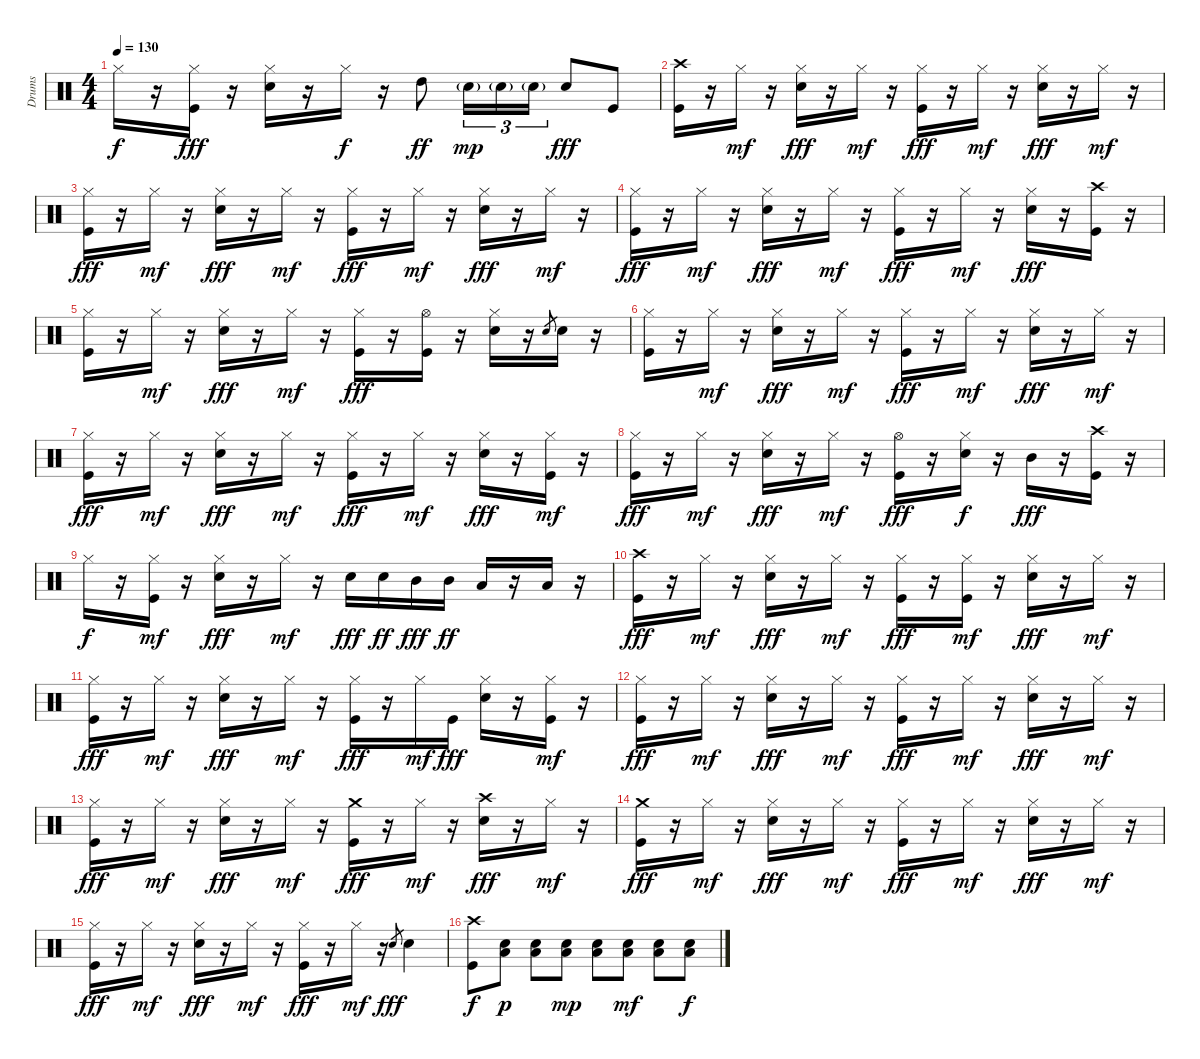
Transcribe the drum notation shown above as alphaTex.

\track ("Drums" "Drums") {instrument percussion}
\staff {score}
\articulation defaults
\ts (4 4)
\tempo 130
\clef neutral
\ks c "Hi-Hat (closed)".16{dy f}
r.16 ("Kick (hit)" "Hi-Hat (closed)").16{dy fff} r.16 ("Electric Snare (hit)" "Hi-Hat (closed)").16 r.16 "Hi-Hat (closed)".16{dy f} r.16 "High Tom (hit)".8{dy ff} "Electric Snare (hit)"{g}.16{tu (3 2) dy mp} "Electric Snare (hit)"{g}.16{tu (3 2)} "Electric Snare (hit)"{g}.16{tu (3 2)} "Electric Snare (hit)".8{dy fff} "Kick (hit)".8 |
("Kick (hit)" "Crash high (hit)").16 r.16 "Hi-Hat (closed)".16{dy mf} r.16 ("Electric Snare (hit)" "Hi-Hat (closed)").16{dy fff} r.16 "Hi-Hat (closed)".16{dy mf} r.16 ("Kick (hit)" "Hi-Hat (closed)").16{dy fff} r.16 "Hi-Hat (closed)".16{dy mf} r.16 ("Electric Snare (hit)" "Hi-Hat (closed)").16{dy fff} r.16 "Hi-Hat (closed)".16{dy mf} r.16 |
("Kick (hit)" "Hi-Hat (closed)").16{dy fff} r.16 "Hi-Hat (closed)".16{dy mf} r.16 ("Electric Snare (hit)" "Hi-Hat (closed)").16{dy fff} r.16 "Hi-Hat (closed)".16{dy mf} r.16 ("Kick (hit)" "Hi-Hat (closed)").16{dy fff} r.16 "Hi-Hat (closed)".16{dy mf} r.16 ("Electric Snare (hit)" "Hi-Hat (closed)").16{dy fff} r.16 "Hi-Hat (closed)".16{dy mf} r.16 |
("Kick (hit)" "Hi-Hat (closed)").16{dy fff} r.16 "Hi-Hat (closed)".16{dy mf} r.16 ("Electric Snare (hit)" "Hi-Hat (closed)").16{dy fff} r.16 "Hi-Hat (closed)".16{dy mf} r.16 ("Kick (hit)" "Hi-Hat (closed)").16{dy fff} r.16 "Hi-Hat (closed)".16{dy mf} r.16 ("Electric Snare (hit)" "Hi-Hat (closed)").16{dy fff} r.16 ("Kick (hit)" "Crash high (hit)").16 r.16 |
("Kick (hit)" "Hi-Hat (closed)").16 r.16 "Hi-Hat (closed)".16{dy mf} r.16 ("Electric Snare (hit)" "Hi-Hat (closed)").16{dy fff} r.16 "Hi-Hat (closed)".16{dy mf} r.16 ("Kick (hit)" "Hi-Hat (closed)").16{dy fff} r.16 ("Kick (hit)" "Hi-Hat (open)").16 r.16 ("Electric Snare (hit)" "Hi-Hat (closed)").16 r.16 "Electric Snare (hit)".8{gr} "Electric Snare (hit)".16 r.16 |
("Kick (hit)" "Hi-Hat (closed)").16 r.16 "Hi-Hat (closed)".16{dy mf} r.16 ("Electric Snare (hit)" "Hi-Hat (closed)").16{dy fff} r.16 "Hi-Hat (closed)".16{dy mf} r.16 ("Kick (hit)" "Hi-Hat (closed)").16{dy fff} r.16 "Hi-Hat (closed)".16{dy mf} r.16 ("Electric Snare (hit)" "Hi-Hat (closed)").16{dy fff} r.16 "Hi-Hat (closed)".16{dy mf} r.16 |
("Kick (hit)" "Hi-Hat (closed)").16{dy fff} r.16 "Hi-Hat (closed)".16{dy mf} r.16 ("Electric Snare (hit)" "Hi-Hat (closed)").16{dy fff} r.16 "Hi-Hat (closed)".16{dy mf} r.16 ("Kick (hit)" "Hi-Hat (closed)").16{dy fff} r.16 "Hi-Hat (closed)".16{dy mf} r.16 ("Electric Snare (hit)" "Hi-Hat (closed)").16{dy fff} r.16 ("Kick (hit)" "Hi-Hat (closed)").16{dy mf} r.16 |
("Kick (hit)" "Hi-Hat (closed)").16{dy fff} r.16 "Hi-Hat (closed)".16{dy mf} r.16 ("Electric Snare (hit)" "Hi-Hat (closed)").16{dy fff} r.16 "Hi-Hat (closed)".16{dy mf} r.16 ("Kick (hit)" "Hi-Hat (open)").16{dy fff} r.16 ("Electric Snare (hit)" "Hi-Hat (closed)").16{dy f} r.16 "Mid Tom (hit)".16{dy fff} r.16 ("Kick (hit)" "Crash high (hit)").16 r.16 |
"Hi-Hat (closed)".16{dy f} r.16 ("Kick (hit)" "Hi-Hat (closed)").16{dy mf} r.16 ("Electric Snare (hit)" "Hi-Hat (closed)").16{dy fff} r.16 "Hi-Hat (closed)".16{dy mf} r.16 "Electric Snare (hit)".16{dy fff} "Electric Snare (hit)".16{dy ff} "Mid Tom (hit)".16{dy fff} "Mid Tom (hit)".16{dy ff} "Low Tom (hit)".16 r.16 "Low Floor Tom (hit)".16 r.16 |
("Kick (hit)" "Crash high (hit)").16{dy fff} r.16 "Hi-Hat (closed)".16{dy mf} r.16 ("Electric Snare (hit)" "Hi-Hat (closed)").16{dy fff} r.16 "Hi-Hat (closed)".16{dy mf} r.16 ("Kick (hit)" "Hi-Hat (closed)").16{dy fff} r.16 ("Kick (hit)" "Hi-Hat (closed)").16{dy mf} r.16 ("Electric Snare (hit)" "Hi-Hat (closed)").16{dy fff} r.16 "Hi-Hat (closed)".16{dy mf} r.16 |
("Kick (hit)" "Hi-Hat (closed)").16{dy fff} r.16 "Hi-Hat (closed)".16{dy mf} r.16 ("Electric Snare (hit)" "Hi-Hat (closed)").16{dy fff} r.16 "Hi-Hat (closed)".16{dy mf} r.16 ("Kick (hit)" "Hi-Hat (closed)").16{dy fff} r.16 "Hi-Hat (closed)".16{dy mf} "Kick (hit)".16{dy fff} ("Electric Snare (hit)" "Hi-Hat (closed)").16 r.16 ("Kick (hit)" "Hi-Hat (closed)").16{dy mf} r.16 |
("Kick (hit)" "Hi-Hat (closed)").16{dy fff} r.16 "Hi-Hat (closed)".16{dy mf} r.16 ("Electric Snare (hit)" "Hi-Hat (closed)").16{dy fff} r.16 "Hi-Hat (closed)".16{dy mf} r.16 ("Kick (hit)" "Hi-Hat (closed)").16{dy fff} r.16 "Hi-Hat (closed)".16{dy mf} r.16 ("Electric Snare (hit)" "Hi-Hat (closed)").16{dy fff} r.16 "Hi-Hat (closed)".16{dy mf} r.16 |
("Kick (hit)" "Hi-Hat (closed)").16{dy fff} r.16 "Hi-Hat (closed)".16{dy mf} r.16 ("Electric Snare (hit)" "Hi-Hat (closed)").16{dy fff} r.16 "Hi-Hat (closed)".16{dy mf} r.16 ("Kick (hit)" "Crash medium (hit)").16{dy fff} r.16 "Hi-Hat (closed)".16{dy mf} r.16 ("Electric Snare (hit)" "Crash high (hit)").16{dy fff} r.16 "Hi-Hat (closed)".16{dy mf} r.16 |
("Kick (hit)" "Crash medium (hit)").16{dy fff} r.16 "Hi-Hat (closed)".16{dy mf} r.16 ("Electric Snare (hit)" "Hi-Hat (closed)").16{dy fff} r.16 "Hi-Hat (closed)".16{dy mf} r.16 ("Kick (hit)" "Hi-Hat (closed)").16{dy fff} r.16 "Hi-Hat (closed)".16{dy mf} r.16 ("Electric Snare (hit)" "Hi-Hat (closed)").16{dy fff} r.16 "Hi-Hat (closed)".16{dy mf} r.16 |
("Kick (hit)" "Hi-Hat (closed)").16{dy fff} r.16 "Hi-Hat (closed)".16{dy mf} r.16 ("Electric Snare (hit)" "Hi-Hat (closed)").16{dy fff} r.16 "Hi-Hat (closed)".16{dy mf} r.16 ("Kick (hit)" "Hi-Hat (closed)").16{dy fff} r.16 "Hi-Hat (closed)".16{dy mf} r.16 "Electric Snare (hit)".8{gr dy fff} "Electric Snare (hit)".4 |
("Kick (hit)" "Crash high (hit)").8{dy f} ("Low Floor Tom (hit)" "Electric Snare (hit)").8{dy p} ("Low Floor Tom (hit)" "Electric Snare (hit)").8 ("Low Floor Tom (hit)" "Electric Snare (hit)").8{dy mp} ("Low Floor Tom (hit)" "Electric Snare (hit)").8 ("Low Floor Tom (hit)" "Electric Snare (hit)").8{dy mf} ("Low Floor Tom (hit)" "Electric Snare (hit)").8 ("Low Floor Tom (hit)" "Electric Snare (hit)").8{dy f}
